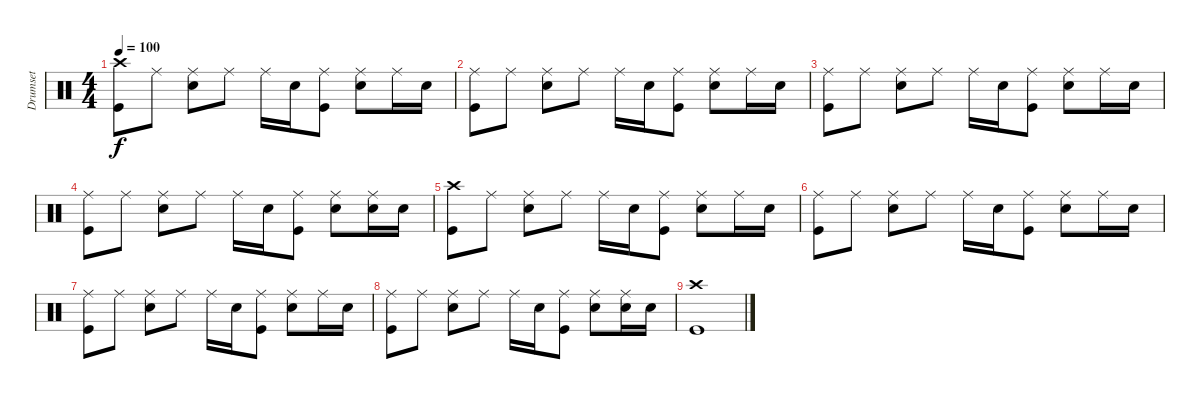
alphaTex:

\track ("Drumset" "Drumset") {instrument percussion}
\staff {score}
\articulation defaults
\ts (4 4)
\tempo 100
\clef neutral
\ks c
("Crash high (hit)" "Kick (hit)").8{dy f} "Ride (middle)".8 ("Ride (middle)" "Snare (hit) 2").8 "Ride (middle)".8 "Ride (middle)".16 "Snare (hit) 2".16 ("Ride (middle)" "Kick (hit)").8 ("Ride (middle)" "Snare (hit) 2").8 "Ride (middle)".16 "Snare (hit) 2".16 |
("Ride (middle)" "Kick (hit)").8 "Ride (middle)".8 ("Snare (hit) 2" "Ride (middle)").8 "Ride (middle)".8 "Ride (middle)".16 "Snare (hit) 2".16 ("Ride (middle)" "Kick (hit)").8 ("Ride (middle)" "Snare (hit) 2").8 "Ride (middle)".16 "Snare (hit) 2".16 |
("Ride (middle)" "Kick (hit)").8 "Ride (middle)".8 ("Ride (middle)" "Snare (hit) 2").8 "Ride (middle)".8 "Ride (middle)".16 "Snare (hit) 2".16 ("Ride (middle)" "Kick (hit)").8 ("Ride (middle)" "Snare (hit) 2").8 "Ride (middle)".16 "Snare (hit) 2".16 |
("Ride (middle)" "Kick (hit)").8 "Ride (middle)".8 ("Snare (hit) 2" "Ride (middle)").8 "Ride (middle)".8 "Ride (middle)".16 "Snare (hit) 2".16 ("Ride (middle)" "Kick (hit)").8 ("Ride (middle)" "Snare (hit) 2").8 ("Ride (middle)" "Snare (hit) 2").16 "Snare (hit) 2".16 |
("Crash high (hit)" "Kick (hit)").8 "Ride (middle)".8 ("Ride (middle)" "Snare (hit) 2").8 "Ride (middle)".8 "Ride (middle)".16 "Snare (hit) 2".16 ("Ride (middle)" "Kick (hit)").8 ("Ride (middle)" "Snare (hit) 2").8 "Ride (middle)".16 "Snare (hit) 2".16 |
("Ride (middle)" "Kick (hit)").8 "Ride (middle)".8 ("Snare (hit) 2" "Ride (middle)").8 "Ride (middle)".8 "Ride (middle)".16 "Snare (hit) 2".16 ("Ride (middle)" "Kick (hit)").8 ("Ride (middle)" "Snare (hit) 2").8 "Ride (middle)".16 "Snare (hit) 2".16 |
("Ride (middle)" "Kick (hit)").8 "Ride (middle)".8 ("Ride (middle)" "Snare (hit) 2").8 "Ride (middle)".8 "Ride (middle)".16 "Snare (hit) 2".16 ("Ride (middle)" "Kick (hit)").8 ("Ride (middle)" "Snare (hit) 2").8 "Ride (middle)".16 "Snare (hit) 2".16 |
("Ride (middle)" "Kick (hit)").8 "Ride (middle)".8 ("Snare (hit) 2" "Ride (middle)").8 "Ride (middle)".8 "Ride (middle)".16 "Snare (hit) 2".16 ("Ride (middle)" "Kick (hit)").8 ("Ride (middle)" "Snare (hit) 2").8 ("Ride (middle)" "Snare (hit) 2").16 "Snare (hit) 2".16 |
("Crash high (hit)" "Kick (hit)").1
